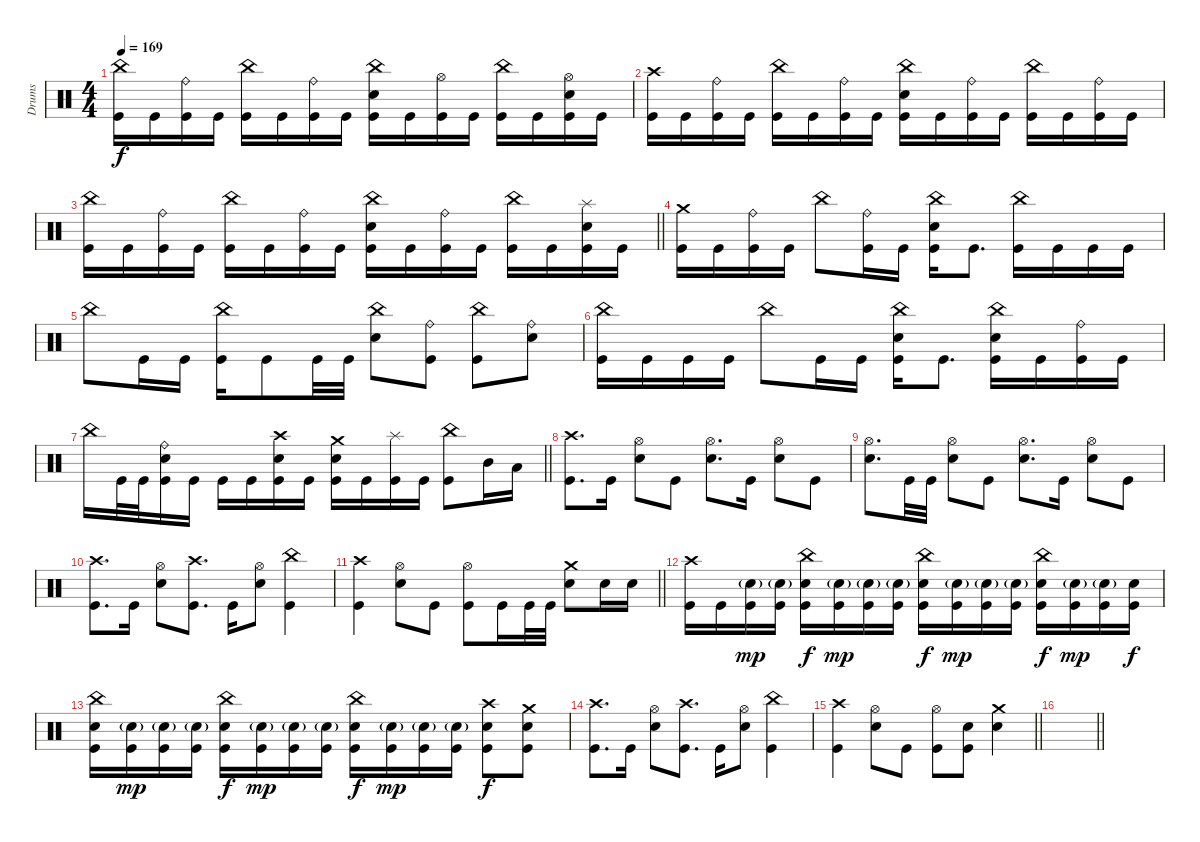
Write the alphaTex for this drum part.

\track ("Drums" "Drums") {instrument percussion}
\staff
\articulation defaults
\ts (4 4)
\tempo 169
\clef neutral
\ks c
("China (hit)" "Kick (hit)").16{dy f} "Kick (hit)".16 ("Ride (bell)" "Kick (hit)").16 "Kick (hit)".16 ("China (hit)" "Kick (hit)").16 "Kick (hit)".16 ("Ride (bell)" "Kick (hit)").16 "Kick (hit)".16 ("China (hit)" "Electric Snare (hit)" "Kick (hit)").16 "Kick (hit)".16 ("Hi-Hat (open)" "Kick (hit)").16 "Kick (hit)".16 ("China (hit)" "Kick (hit)").16 "Kick (hit)".16 ("Hi-Hat (open)" "Electric Snare (hit)" "Kick (hit)").16 "Kick (hit)".16 |
("Crash high (hit)" "Kick (hit)").16 "Kick (hit)".16 ("Ride (bell)" "Kick (hit)").16 "Kick (hit)".16 ("China (hit)" "Kick (hit)").16 "Kick (hit)".16 ("Ride (bell)" "Kick (hit)").16 "Kick (hit)".16 ("China (hit)" "Electric Snare (hit)" "Kick (hit)").16 "Kick (hit)".16 ("Ride (bell)" "Kick (hit)").16 "Kick (hit)".16 ("China (hit)" "Kick (hit)").16 "Kick (hit)".16 ("Ride (bell)" "Kick (hit)").16 "Kick (hit)".16 |
\barLineRight lightlight
("China (hit)" "Kick (hit)").16 "Kick (hit)".16 ("Ride (bell)" "Kick (hit)").16 "Kick (hit)".16 ("China (hit)" "Kick (hit)").16 "Kick (hit)".16 ("Ride (bell)" "Kick (hit)").16 "Kick (hit)".16 ("China (hit)" "Electric Snare (hit)" "Kick (hit)").16 "Kick (hit)".16 ("Ride (bell)" "Kick (hit)").16 "Kick (hit)".16 ("China (hit)" "Kick (hit)").16 "Kick (hit)".16 ("Splash (hit)" "Electric Snare (hit)" "Kick (hit)").16 "Kick (hit)".16 |
("Crash medium (hit)" "Kick (hit)").16 "Kick (hit)".16 ("Ride (bell)" "Kick (hit)").16 "Kick (hit)".16 "China (hit)".8 ("Ride (bell)" "Kick (hit)").16 "Kick (hit)".16 ("China (hit)" "Electric Snare (hit)" "Kick (hit)").16 "Kick (hit)".8{d} ("China (hit)" "Kick (hit)").16 "Kick (hit)".16 "Kick (hit)".16 "Kick (hit)".16 |
"China (hit)".8 "Kick (hit)".16 "Kick (hit)".16 ("China (hit)" "Kick (hit)").16 "Kick (hit)".8 "Kick (hit)".32 "Kick (hit)".32 ("China (hit)" "Electric Snare (hit)").8 ("Ride (bell)" "Kick (hit)").8 ("China (hit)" "Kick (hit)").8 ("Ride (bell)" "Electric Snare (hit)").8 |
("China (hit)" "Kick (hit)").16 "Kick (hit)".16 "Kick (hit)".16 "Kick (hit)".16 "China (hit)".8 "Kick (hit)".16 "Kick (hit)".16 ("China (hit)" "Electric Snare (hit)" "Kick (hit)").16 "Kick (hit)".8{d} ("China (hit)" "Electric Snare (hit)" "Kick (hit)").16 "Kick (hit)".16 ("Ride (bell)" "Kick (hit)").16 "Kick (hit)".16 |
\barLineRight lightlight "China (hit)".16 "Kick (hit)".32 "Kick (hit)".32
("Ride (bell)" "Electric Snare (hit)" "Kick (hit)").16 "Kick (hit)".16 "Kick (hit)".16 "Kick (hit)".16 ("Crash high (hit)" "Electric Snare (hit)" "Kick (hit)").16 "Kick (hit)".16 ("Crash medium (hit)" "Electric Snare (hit)" "Kick (hit)").16 "Kick (hit)".16 ("Splash (hit)" "Kick (hit)").16 "Kick (hit)".16 ("China (hit)" "Kick (hit)").8 "Mid Tom (hit)".16 "Low Tom (hit)".16 |
\section ("" "")
("Crash high (hit)" "Kick (hit)").8{d} "Kick (hit)".16 ("Hi-Hat (open)" "Electric Snare (hit)").8 "Kick (hit)".8 ("Hi-Hat (open)" "Electric Snare (hit)").8{d} "Kick (hit)".16 ("Hi-Hat (open)" "Electric Snare (hit)").8 "Kick (hit)".8 |
("Hi-Hat (open)" "Electric Snare (hit)").8{d} "Kick (hit)".32 "Kick (hit)".32 ("Hi-Hat (open)" "Electric Snare (hit)").8 "Kick (hit)".8 ("Hi-Hat (open)" "Electric Snare (hit)").8{d} "Kick (hit)".16 ("Hi-Hat (open)" "Electric Snare (hit)").8 "Kick (hit)".8 |
("Crash high (hit)" "Kick (hit)").8{d} "Kick (hit)".16 ("Hi-Hat (open)" "Electric Snare (hit)").8 ("Crash high (hit)" "Kick (hit)").8{d} "Kick (hit)".16 ("Hi-Hat (open)" "Electric Snare (hit)").8 ("China (hit)" "Kick (hit)").4 |
\barLineRight lightlight
("Crash high (hit)" "Kick (hit)").4 ("Hi-Hat (open)" "Electric Snare (hit)").8 "Kick (hit)".8 ("Hi-Hat (open)" "Kick (hit)").8 "Kick (hit)".16 "Kick (hit)".32 "Kick (hit)".32 ("Crash medium (hit)" "Electric Snare (hit)").8 "Electric Snare (hit)".16 "Electric Snare (hit)".16 |
("Crash high (hit)" "Kick (hit)").16 "Kick (hit)".16 ("Electric Snare (hit)"{g} "Kick (hit)").16{dy mp} ("Electric Snare (hit)"{g} "Kick (hit)").16 ("China (hit)" "Electric Snare (hit)" "Kick (hit)").16{dy f} ("Electric Snare (hit)"{g} "Kick (hit)").16{dy mp} ("Electric Snare (hit)"{g} "Kick (hit)").16 ("Electric Snare (hit)"{g} "Kick (hit)").16 ("China (hit)" "Electric Snare (hit)" "Kick (hit)").16{dy f} ("Electric Snare (hit)"{g} "Kick (hit)").16{dy mp} ("Electric Snare (hit)"{g} "Kick (hit)").16 ("Electric Snare (hit)"{g} "Kick (hit)").16 ("China (hit)" "Electric Snare (hit)" "Kick (hit)").16{dy f} ("Electric Snare (hit)"{g} "Kick (hit)").16{dy mp} ("Electric Snare (hit)"{g} "Kick (hit)").16 ("Electric Snare (hit)" "Kick (hit)").16{dy f} |
("China (hit)" "Electric Snare (hit)" "Kick (hit)").16 ("Electric Snare (hit)"{g} "Kick (hit)").16{dy mp} ("Electric Snare (hit)"{g} "Kick (hit)").16 ("Electric Snare (hit)"{g} "Kick (hit)").16 ("China (hit)" "Electric Snare (hit)" "Kick (hit)").16{dy f} ("Electric Snare (hit)"{g} "Kick (hit)").16{dy mp} ("Electric Snare (hit)"{g} "Kick (hit)").16 ("Electric Snare (hit)"{g} "Kick (hit)").16 ("China (hit)" "Electric Snare (hit)" "Kick (hit)").16{dy f} ("Electric Snare (hit)"{g} "Kick (hit)").16{dy mp} ("Electric Snare (hit)"{g} "Kick (hit)").16 ("Electric Snare (hit)"{g} "Kick (hit)").16 ("Crash high (hit)" "Electric Snare (hit)" "Kick (hit)").8{dy f} ("Crash medium (hit)" "Electric Snare (hit)" "Kick (hit)").8 |
("Crash high (hit)" "Kick (hit)").8{d} "Kick (hit)".16 ("Hi-Hat (open)" "Electric Snare (hit)").8 ("Crash high (hit)" "Kick (hit)").8{d} "Kick (hit)".16 ("Hi-Hat (open)" "Electric Snare (hit)").8 ("China (hit)" "Kick (hit)").4 |
\barLineRight lightlight
("Crash high (hit)" "Kick (hit)").4 ("Hi-Hat (open)" "Electric Snare (hit)").8 "Kick (hit)".8 ("Hi-Hat (open)" "Kick (hit)").8 ("Electric Snare (hit)" "Kick (hit)").8 ("Crash medium (hit)" "Electric Snare (hit)").4 |
\barLineRight lightlight
